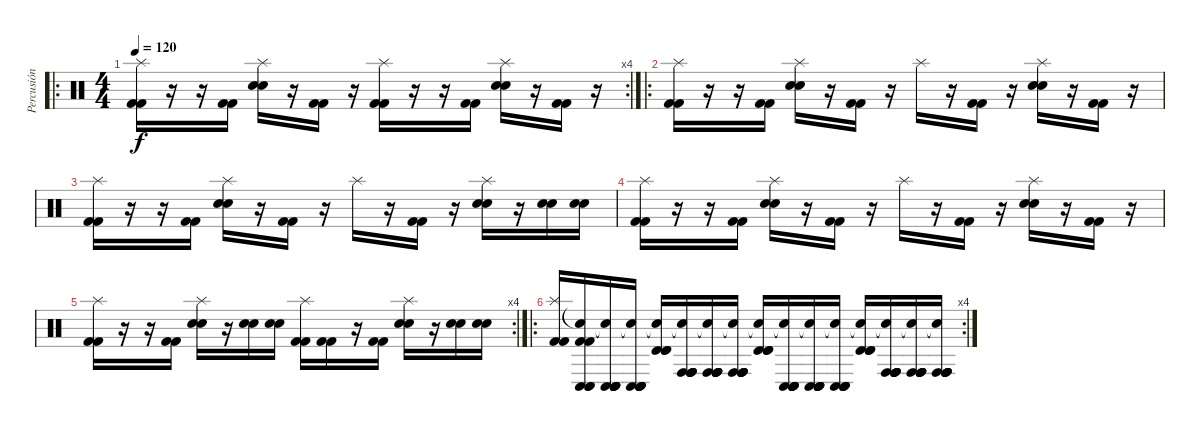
\track ("Percusión" "Percusión") {instrument percussion}
\staff {score}
\articulation defaults
\ro
\rc 4
\ts (4 4)
\tempo 120
\clef neutral
\ks c
("Splash (hit)" "Kick (hit) 2" "Kick (hit) 2").16{dy f} r.16 r.16 ("Kick (hit) 2" "Kick (hit) 2").16 ("Splash (hit)" "Electric Snare (hit)" "Electric Snare (hit)").16 r.16 ("Kick (hit) 2" "Kick (hit) 2").16 r.16 ("Splash (hit)" "Kick (hit) 2" "Kick (hit) 2").16 r.16 r.16 ("Kick (hit) 2" "Kick (hit) 2").16 ("Splash (hit)" "Electric Snare (hit)" "Electric Snare (hit)").16 r.16 ("Kick (hit) 2" "Kick (hit) 2").16 r.16 |
\ro
("Splash (hit)" "Kick (hit) 2" "Kick (hit) 2").16 r.16 r.16 ("Kick (hit) 2" "Kick (hit) 2").16 ("Splash (hit)" "Electric Snare (hit)" "Electric Snare (hit)").16 r.16 ("Kick (hit) 2" "Kick (hit) 2").16 r.16 "Splash (hit)".16 r.16 ("Kick (hit) 2" "Kick (hit) 2").16 r.16 ("Splash (hit)" "Electric Snare (hit)" "Electric Snare (hit)").16 r.16 ("Kick (hit) 2" "Kick (hit) 2").16 r.16 |
("Splash (hit)" "Kick (hit) 2" "Kick (hit) 2").16 r.16 r.16 ("Kick (hit) 2" "Kick (hit) 2").16 ("Splash (hit)" "Electric Snare (hit)" "Electric Snare (hit)").16 r.16 ("Kick (hit) 2" "Kick (hit) 2").16 r.16 "Splash (hit)".16 r.16 ("Kick (hit) 2" "Kick (hit) 2").16 r.16 ("Splash (hit)" "Electric Snare (hit)" "Electric Snare (hit)").16 r.16 ("Electric Snare (hit)" "Electric Snare (hit)").16 ("Electric Snare (hit)" "Electric Snare (hit)").16 |
("Splash (hit)" "Kick (hit) 2" "Kick (hit) 2").16 r.16 r.16 ("Kick (hit) 2" "Kick (hit) 2").16 ("Splash (hit)" "Electric Snare (hit)" "Electric Snare (hit)").16 r.16 ("Kick (hit) 2" "Kick (hit) 2").16 r.16 "Splash (hit)".16 r.16 ("Kick (hit) 2" "Kick (hit) 2").16 r.16 ("Splash (hit)" "Electric Snare (hit)" "Electric Snare (hit)").16 r.16 ("Kick (hit) 2" "Kick (hit) 2").16 r.16 |
\rc 4
("Splash (hit)" "Kick (hit) 2" "Kick (hit) 2").16 r.16 r.16 ("Kick (hit) 2" "Kick (hit) 2").16 ("Splash (hit)" "Electric Snare (hit)" "Electric Snare (hit)").16 r.16 ("Electric Snare (hit)" "Electric Snare (hit)").16 ("Electric Snare (hit)" "Electric Snare (hit)").16 ("Splash (hit)" "Kick (hit) 2" "Kick (hit) 2").16 ("Kick (hit) 2" "Kick (hit) 2").16 r.16 ("Kick (hit) 2" "Kick (hit) 2").16 ("Splash (hit)" "Electric Snare (hit)" "Electric Snare (hit)").16 r.16 ("Electric Snare (hit)" "Electric Snare (hit)").16 ("Electric Snare (hit)" "Electric Snare (hit)").16 |
\ro
\rc 4
("Splash (hit)" "Kick (hit) 2" "Kick (hit) 2").16 ("Snare (hit)"{t} "Conga low (hit)" "Kick (hit) 2" "Kick (hit) 2" "Conga low (hit)" "Conga low (hit)").16 ("Snare (hit)"{t} "Conga low (hit)" "Conga low (hit)" "Conga low (hit)" "Conga low (hit)" "Conga low (hit)").16 ("Snare (hit)"{t} "Conga low (hit)" "Conga low (hit)" "Conga low (hit)" "Conga low (hit)" "Conga low (hit)").16 ("Snare (hit)"{t} "Timbale high (hit)" "Timbale high (hit)" "Timbale high (hit)").16 ("Snare (hit)"{t} "Conga high (hit)" "Conga high (hit)" "Conga high (hit)" "Conga high (hit)" "Conga high (hit)").16 ("Snare (hit)"{t} "Conga high (hit)" "Conga high (hit)" "Conga high (hit)" "Conga high (hit)" "Conga high (hit)").16 ("Snare (hit)"{t} "Conga high (hit)" "Conga high (hit)" "Conga high (hit)" "Conga high (hit)" "Conga high (hit)").16 ("Snare (hit)"{t} "Timbale high (hit)" "Timbale high (hit)" "Timbale high (hit)").16 ("Snare (hit)"{t} "Conga low (hit)" "Conga low (hit)" "Conga low (hit)" "Conga low (hit)" "Conga low (hit)").16 ("Snare (hit)"{t} "Conga low (hit)" "Conga low (hit)" "Conga low (hit)" "Conga low (hit)" "Conga low (hit)").16 ("Snare (hit)"{t} "Conga low (hit)" "Conga low (hit)" "Conga low (hit)" "Conga low (hit)" "Conga low (hit)").16 ("Snare (hit)"{t} "Timbale high (hit)" "Timbale high (hit)" "Timbale high (hit)").16 ("Snare (hit)"{t} "Conga high (hit)" "Conga high (hit)" "Conga high (hit)" "Conga high (hit)" "Conga high (hit)").16 ("Snare (hit)"{t} "Conga high (hit)" "Conga high (hit)" "Conga high (hit)" "Conga high (hit)" "Conga high (hit)").16 ("Snare (hit)"{t} "Conga high (hit)" "Conga high (hit)" "Conga high (hit)" "Conga high (hit)" "Conga high (hit)").16
